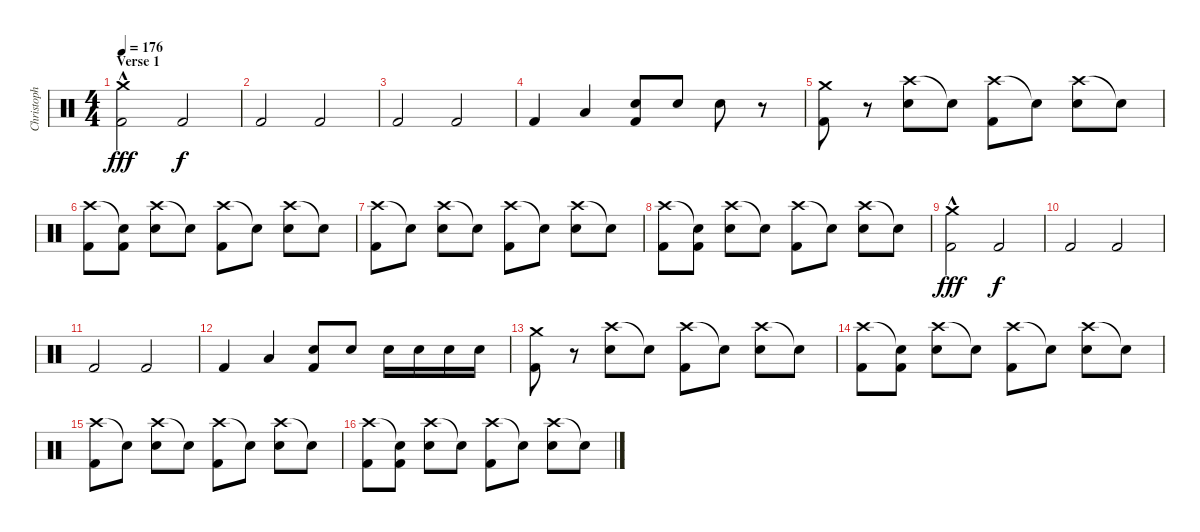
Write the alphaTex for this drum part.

\track ("Christoph" "Christoph") {instrument percussion}
\staff {score}
\articulation defaults
\ts (4 4)
\section ("" "Verse 1")
\tempo 176
\clef neutral
\ks c
("Crash medium (hit)"{hac} "Kick (hit) 2").2{dy fff} "Kick (hit) 2".2{dy f} |
"Kick (hit) 2".2 "Kick (hit) 2".2 |
"Kick (hit) 2".2 "Kick (hit) 2".2 |
"Kick (hit) 2".4 "Low Floor Tom (hit)".4 ("Snare (hit) 2" "Kick (hit) 2").8 "Snare (hit) 2".8 "Snare (hit) 2".8 r.8 |
("Crash medium (hit)" "Kick (hit) 2").8 r.8 ("Crash high (hit)" "Snare (hit) 2").8 "Snare (hit)"{t}.8 ("Crash high (hit)" "Kick (hit) 2").8 "Snare (hit)"{t}.8 ("Crash high (hit)" "Snare (hit) 2").8 "Snare (hit)"{t}.8 |
("Crash high (hit)" "Kick (hit) 2").8 ("Snare (hit)"{t} "Kick (hit) 2").8 ("Crash high (hit)" "Snare (hit) 2").8 "Snare (hit)"{t}.8 ("Crash high (hit)" "Kick (hit) 2").8 "Snare (hit)"{t}.8 ("Crash high (hit)" "Snare (hit) 2").8 "Snare (hit)"{t}.8 |
("Crash high (hit)" "Kick (hit) 2").8 "Snare (hit)"{t}.8 ("Crash high (hit)" "Snare (hit) 2").8 "Snare (hit)"{t}.8 ("Crash high (hit)" "Kick (hit) 2").8 "Snare (hit)"{t}.8 ("Crash high (hit)" "Snare (hit) 2").8 "Snare (hit)"{t}.8 |
("Crash high (hit)" "Kick (hit) 2").8 ("Snare (hit)"{t} "Kick (hit) 2").8 ("Crash high (hit)" "Snare (hit) 2").8 "Snare (hit)"{t}.8 ("Crash high (hit)" "Kick (hit) 2").8 "Snare (hit)"{t}.8 ("Crash high (hit)" "Snare (hit) 2").8 "Snare (hit)"{t}.8 |
("Crash medium (hit)"{hac} "Kick (hit) 2").2{dy fff} "Kick (hit) 2".2{dy f} |
"Kick (hit) 2".2 "Kick (hit) 2".2 |
"Kick (hit) 2".2 "Kick (hit) 2".2 |
"Kick (hit) 2".4 "Low Floor Tom (hit)".4 ("Snare (hit) 2" "Kick (hit) 2").8 "Snare (hit) 2".8 "Snare (hit) 2".16 "Snare (hit) 2".16 "Snare (hit) 2".16 "Snare (hit) 2".16 |
("Crash medium (hit)" "Kick (hit) 2").8 r.8 ("Crash high (hit)" "Snare (hit) 2").8 "Snare (hit)"{t}.8 ("Crash high (hit)" "Kick (hit) 2").8 "Snare (hit)"{t}.8 ("Crash high (hit)" "Snare (hit) 2").8 "Snare (hit)"{t}.8 |
("Crash high (hit)" "Kick (hit) 2").8 ("Snare (hit)"{t} "Kick (hit) 2").8 ("Crash high (hit)" "Snare (hit) 2").8 "Snare (hit)"{t}.8 ("Crash high (hit)" "Kick (hit) 2").8 "Snare (hit)"{t}.8 ("Crash high (hit)" "Snare (hit) 2").8 "Snare (hit)"{t}.8 |
("Crash high (hit)" "Kick (hit) 2").8 "Snare (hit)"{t}.8 ("Crash high (hit)" "Snare (hit) 2").8 "Snare (hit)"{t}.8 ("Crash high (hit)" "Kick (hit) 2").8 "Snare (hit)"{t}.8 ("Crash high (hit)" "Snare (hit) 2").8 "Snare (hit)"{t}.8 |
("Crash high (hit)" "Kick (hit) 2").8 ("Snare (hit)"{t} "Kick (hit) 2").8 ("Crash high (hit)" "Snare (hit) 2").8 "Snare (hit)"{t}.8 ("Crash high (hit)" "Kick (hit) 2").8 "Snare (hit)"{t}.8 ("Crash high (hit)" "Snare (hit) 2").8 "Snare (hit)"{t}.8
